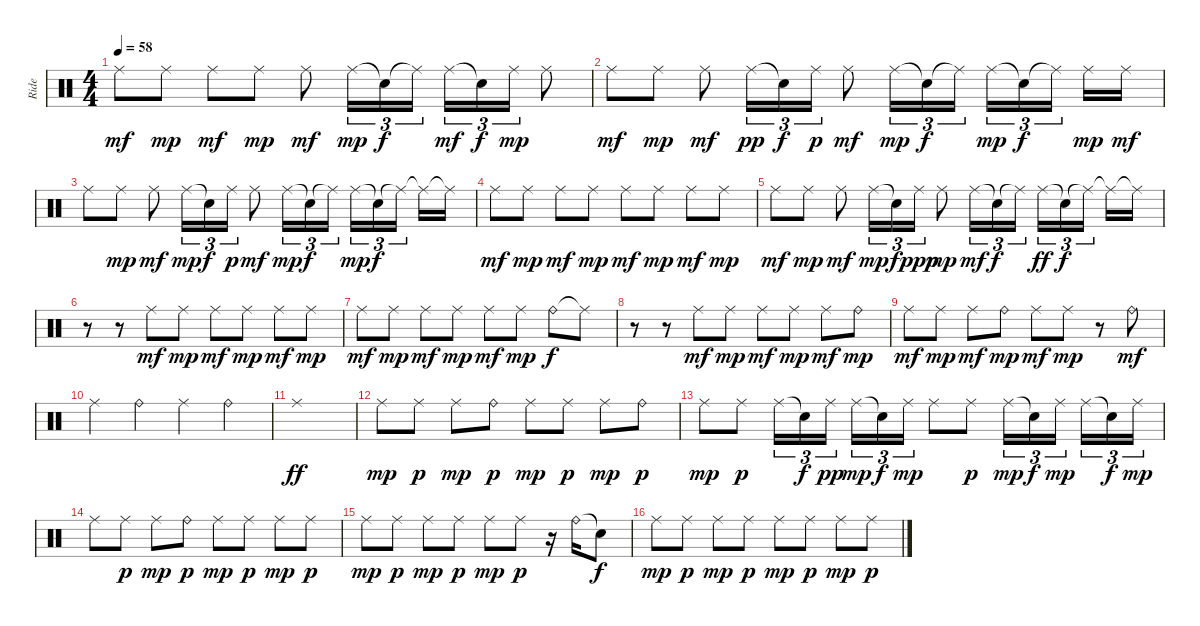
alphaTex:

\track ("Ride" "Ride") {instrument percussion}
\staff {score}
\articulation defaults
\ts (4 4)
\tempo 58
\clef neutral
\ks c "Ride (middle)".8{dy mf} "Ride (middle)".8{dy mp} "Ride (middle)".8{dy mf} "Ride (middle)".8{dy mp} "Ride (middle)".8{dy mf} "Ride (middle)".16{tu (3 2) dy mp} "Snare (hit)"{t}.16{tu (3 2) dy f} "Ride (middle)"{t}.16{tu (3 2)} "Ride (middle)".16{tu (3 2) dy mf} "Snare (hit)"{t}.16{tu (3 2) dy f} "Ride (middle)".16{tu (3 2) dy mp} "Ride (middle)".8
|
"Ride (middle)".8{dy mf} "Ride (middle)".8{dy mp} "Ride (middle)".8{dy mf} "Ride (middle)".16{tu (3 2) dy pp} "Snare (hit)"{t}.16{tu (3 2) dy f} "Ride (middle)".16{tu (3 2) dy p} "Ride (middle)".8{dy mf} "Ride (middle)".16{tu (3 2) dy mp} "Snare (hit)"{t}.16{tu (3 2) dy f} "Ride (middle)"{t}.16{tu (3 2)} "Ride (middle)".16{tu (3 2) dy mp} "Snare (hit)"{t}.16{tu (3 2) dy f} "Ride (middle)"{t}.16{tu (3 2)} "Ride (middle)".16{dy mp} "Ride (middle)".16{dy mf} |
"Ride (middle)".8 "Ride (middle)".8{dy mp} "Ride (middle)".8{dy mf} "Ride (middle)".16{tu (3 2) dy mp} "Snare (hit)"{t}.16{tu (3 2) dy f} "Ride (middle)".16{tu (3 2) dy p} "Ride (middle)".8{dy mf} "Ride (middle)".16{tu (3 2) dy mp} "Snare (hit)"{t}.16{tu (3 2) dy f} "Ride (middle)"{t}.16{tu (3 2)} "Ride (middle)".16{tu (3 2) dy mp} "Snare (hit)"{t}.16{tu (3 2) dy f} "Ride (middle)"{t}.16{tu (3 2)} "Ride (middle)"{t}.16 "Ride (middle)"{t}.16 |
"Ride (middle)".8{dy mf} "Ride (middle)".8{dy mp} "Ride (middle)".8{dy mf} "Ride (middle)".8{dy mp} "Ride (middle)".8{dy mf} "Ride (middle)".8{dy mp} "Ride (middle)".8{dy mf} "Ride (middle)".8{dy mp} |
"Ride (middle)".8{dy mf} "Ride (middle)".8{dy mp} "Ride (middle)".8{dy mf} "Ride (middle)".16{tu (3 2) dy mp} "Snare (hit)"{t}.16{tu (3 2) dy f} "Ride (middle)".16{tu (3 2) dy ppp} "Ride (middle)".8{dy mp} "Ride (middle)".16{tu (3 2) dy mf} "Snare (hit)"{t}.16{tu (3 2) dy f} "Ride (middle)"{t}.16{tu (3 2)} "Ride (middle)".16{tu (3 2) dy ff} "Snare (hit)"{t}.16{tu (3 2) dy f} "Ride (middle)"{t}.16{tu (3 2)} "Ride (middle)"{t}.16 "Ride (middle)"{t}.16 |
r.8 r.8 "Ride (middle)".8{dy mf} "Ride (middle)".8{dy mp} "Ride (middle)".8{dy mf} "Ride (middle)".8{dy mp} "Ride (middle)".8{dy mf} "Ride (middle)".8{dy mp} |
"Ride (middle)".8{dy mf} "Ride (middle)".8{dy mp} "Ride (middle)".8{dy mf} "Ride (middle)".8{dy mp} "Ride (middle)".8{dy mf} "Ride (middle)".8{dy mp} "Ride (bell)".8{dy f} "Ride (middle)"{t}.8 |
r.8 r.8 "Ride (middle)".8{dy mf} "Ride (middle)".8{dy mp} "Ride (middle)".8{dy mf} "Ride (middle)".8{dy mp} "Ride (middle)".8{dy mf} "Ride (bell)".8{dy mp} |
"Ride (middle)".8{dy mf} "Ride (middle)".8{dy mp} "Ride (middle)".8{dy mf} "Ride (bell)".8{dy mp} "Ride (middle)".8{dy mf} "Ride (middle)".8{dy mp} r.8 "Ride (bell)".8{dy mf} |
"Ride (middle)".4 "Ride (bell)".4 "Ride (middle)".4 "Ride (bell)".4 |
"Ride (middle)".1{dy ff} |
"Ride (middle)".8{dy mp} "Ride (middle)".8{dy p} "Ride (middle)".8{dy mp} "Ride (bell)".8{dy p} "Ride (middle)".8{dy mp} "Ride (middle)".8{dy p} "Ride (middle)".8{dy mp} "Ride (bell)".8{dy p} |
"Ride (middle)".8{dy mp} "Ride (middle)".8{dy p} "Ride (middle)".16{tu (3 2)} "Snare (hit)"{t}.16{tu (3 2) dy f} "Ride (middle)".16{tu (3 2) dy pp} "Ride (middle)".16{tu (3 2) dy mp} "Snare (hit)"{t}.16{tu (3 2) dy f} "Ride (middle)".16{tu (3 2) dy mp} "Ride (middle)".8 "Ride (middle)".8{dy p} "Ride (middle)".16{tu (3 2) dy mp} "Snare (hit)"{t}.16{tu (3 2) dy f} "Ride (middle)".16{tu (3 2) dy mp} "Ride (middle)".16{tu (3 2)} "Snare (hit)"{t}.16{tu (3 2) dy f} "Ride (middle)".16{tu (3 2) dy mp} |
"Ride (middle)".8 "Ride (middle)".8{dy p} "Ride (middle)".8{dy mp} "Ride (bell)".8{dy p} "Ride (middle)".8{dy mp} "Ride (middle)".8{dy p} "Ride (middle)".8{dy mp} "Ride (middle)".8{dy p} |
"Ride (middle)".8{dy mp} "Ride (middle)".8{dy p} "Ride (middle)".8{dy mp} "Ride (middle)".8{dy p} "Ride (middle)".8{dy mp} "Ride (middle)".8{dy p} r.16 "Ride (bell)".16 "Snare (hit)"{t}.8{dy f} |
"Ride (middle)".8{dy mp} "Ride (middle)".8{dy p} "Ride (middle)".8{dy mp} "Ride (middle)".8{dy p} "Ride (middle)".8{dy mp} "Ride (middle)".8{dy p} "Ride (middle)".8{dy mp} "Ride (middle)".8{dy p}
